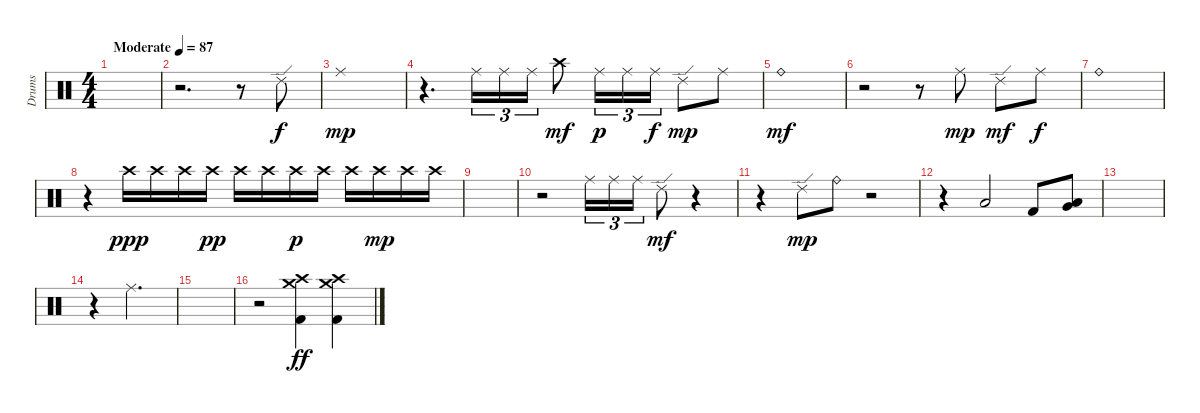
\track ("Drums" "Drums") {instrument percussion}
\staff {score}
\articulation defaults
\ts (4 4)
\tempo (87 "Moderate")
\clef neutral
\ks c
|
r.2{d} r.8 "Ride (edge) 2".8 |
"Ride (middle)".1{dy mp} |
r.4{d} "Ride (middle)".16{tu (3 2)} "Ride (middle)".16{tu (3 2)} "Ride (middle)".16{tu (3 2)} "Crash high (hit)".8{dy mf} "Ride (middle)".16{tu (3 2) dy p} "Ride (middle)".16{tu (3 2)} "Ride (middle)".16{tu (3 2) dy f} "Ride (edge) 2".8{dy mp} "Ride (middle)".8 |
"Ride (bell)".1{dy mf} |
r.2 r.8 "Ride (middle)".8{dy mp} "Ride (edge) 2".8{dy mf} "Ride (middle)".8{dy f} |
"Ride (bell)".1 |
r.4 "Crash high (hit)".16{dy ppp} "Crash high (hit)".16 "Crash high (hit)".16 "Crash high (hit)".16{dy pp} "Crash high (hit)".16 "Crash high (hit)".16 "Crash high (hit)".16{dy p} "Crash high (hit)".16 "Crash high (hit)".16 "Crash high (hit)".16{dy mp} "Crash high (hit)".16 "Crash high (hit)".16 |
|
r.2 "Ride (middle)".16{tu (3 2)} "Ride (middle)".16{tu (3 2)} "Ride (middle)".16{tu (3 2)} "Ride (edge) 2".8{dy mf} r.4 |
r.4 "Ride (edge) 2".8{dy mp} "Ride (bell)".8 r.2 |
r.4 "Low Floor Tom (hit)".2 "Kick (hit) 2".8 ("Low Tom (hit)" "Very Low Tom (hit)").8 |
|
r.4 "Ride (middle)".2{d} |
|
r.2 ("Crash medium (hit)" "Crash high (hit)" "Kick (hit) 2").4{dy ff} ("Crash medium (hit)" "Crash high (hit)" "Kick (hit) 2").4
